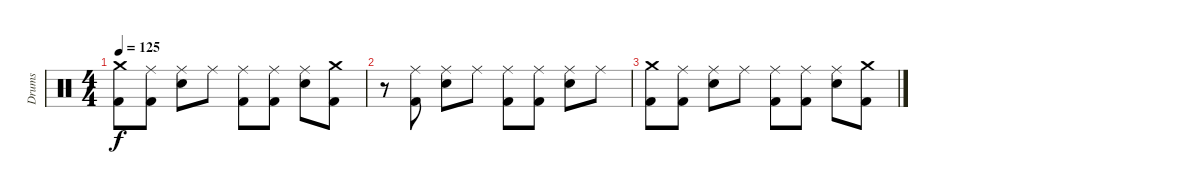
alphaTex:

\track ("Drums" "Drums") {instrument percussion}
\staff {score}
\articulation defaults
\ts (4 4)
\tempo 125
\clef neutral
\ks c
("Crash medium (hit)" "Kick (hit) 2").8{dy f} ("Ride (middle)" "Kick (hit) 2").8 ("Ride (middle)" "Snare (hit) 2").8 "Ride (middle)".8 ("Ride (middle)" "Kick (hit) 2").8 ("Ride (middle)" "Kick (hit) 2").8 ("Ride (middle)" "Snare (hit) 2").8 ("Crash medium (hit)" "Kick (hit) 2").8 |
r.8 ("Ride (middle)" "Kick (hit) 2").8 ("Ride (middle)" "Snare (hit) 2").8 "Ride (middle)".8 ("Ride (middle)" "Kick (hit) 2").8 ("Ride (middle)" "Kick (hit) 2").8 ("Ride (middle)" "Snare (hit) 2").8 "Ride (middle)".8 |
("Crash medium (hit)" "Kick (hit) 2").8 ("Ride (middle)" "Kick (hit) 2").8 ("Ride (middle)" "Snare (hit) 2").8 "Ride (middle)".8 ("Ride (middle)" "Kick (hit) 2").8 ("Ride (middle)" "Kick (hit) 2").8 ("Ride (middle)" "Snare (hit) 2").8 ("Crash medium (hit)" "Kick (hit) 2").8
